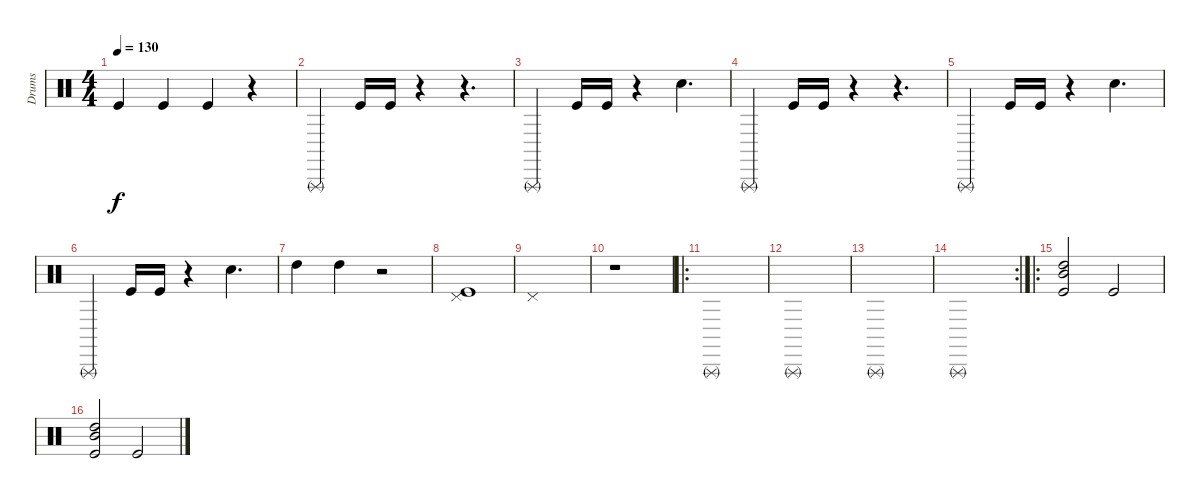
\track ("Drums" "Drums") {instrument percussion}
\staff {score}
\articulation defaults
\ts (4 4)
\tempo 130
\clef neutral
\ks c "Kick (hit)".4{dy f} "Kick (hit)".4 "Kick (hit)".4
r.4 |
"Triangle (rnute)".4 "Kick (hit)".16 "Kick (hit)".16 r.4 r.4{d} |
"Triangle (rnute)".4 "Kick (hit)".16 "Kick (hit)".16 r.4 "Snare (hit) 2".4{d} |
"Triangle (rnute)".4 "Kick (hit)".16 "Kick (hit)".16 r.4 r.4{d} |
"Triangle (rnute)".4 "Kick (hit)".16 "Kick (hit)".16 r.4 "Snare (hit) 2".4{d} |
"Triangle (rnute)".4 "Kick (hit)".16 "Kick (hit)".16 r.4 "Snare (hit) 2".4{d} |
"High Tom (hit)".4 "High Tom (hit)".4 r.2 |
("Pedal Hi-Hat (hit)" "Kick (hit)").1 |
"Pedal Hi-Hat (hit)".1 |
r.1 |
\ro "Triangle (rnute)".1
|
"Triangle (rnute)".1 |
"Triangle (rnute)".1 |
\rc 2 "Triangle (rnute)".1
|
\ro
("High Tom (hit)" "Mid Tom (hit)" "Kick (hit)").2 "Kick (hit)".2 |
("High Tom (hit)" "Mid Tom (hit)" "Kick (hit)").2 "Kick (hit)".2
